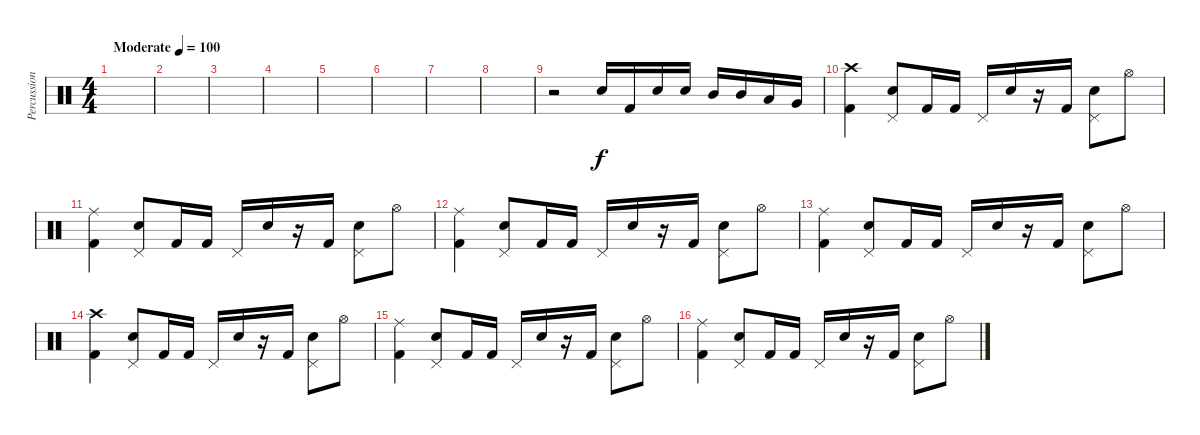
\track ("Percussion" "Percussion") {instrument percussion}
\staff {score}
\articulation defaults
\ts (4 4)
\tempo (100 "Moderate")
\clef neutral
\ks c
|
|
|
|
|
|
|
|
r.2 "Electric Snare (hit)".16 "Kick (hit) 2".16 "Electric Snare (hit)".16 "Electric Snare (hit)".16 "Mid Tom (hit)".16 "Mid Tom (hit)".16 "Low Tom (hit)".16 "Very Low Tom (hit)".16 |
("Crash high (hit)" "Kick (hit) 2").4 ("Pedal Hi-Hat (hit)" "Electric Snare (hit)").8 "Kick (hit) 2".16 "Kick (hit) 2".16 "Pedal Hi-Hat (hit)".16 "Electric Snare (hit)".16 r.16 "Kick (hit) 2".16 ("Pedal Hi-Hat (hit)" "Electric Snare (hit)").8 "Hi-Hat (open)".8 |
("Ride (middle)" "Kick (hit) 2").4 ("Pedal Hi-Hat (hit)" "Electric Snare (hit)").8 "Kick (hit) 2".16 "Kick (hit) 2".16 "Pedal Hi-Hat (hit)".16 "Electric Snare (hit)".16 r.16 "Kick (hit) 2".16 ("Pedal Hi-Hat (hit)" "Electric Snare (hit)").8 "Hi-Hat (open)".8 |
("Ride (middle)" "Kick (hit) 2").4 ("Pedal Hi-Hat (hit)" "Electric Snare (hit)").8 "Kick (hit) 2".16 "Kick (hit) 2".16 "Pedal Hi-Hat (hit)".16 "Electric Snare (hit)".16 r.16 "Kick (hit) 2".16 ("Pedal Hi-Hat (hit)" "Electric Snare (hit)").8 "Hi-Hat (open)".8 |
("Ride (middle)" "Kick (hit) 2").4 ("Pedal Hi-Hat (hit)" "Electric Snare (hit)").8 "Kick (hit) 2".16 "Kick (hit) 2".16 "Pedal Hi-Hat (hit)".16 "Electric Snare (hit)".16 r.16 "Kick (hit) 2".16 ("Pedal Hi-Hat (hit)" "Electric Snare (hit)").8 "Hi-Hat (open)".8 |
("Crash high (hit)" "Kick (hit) 2").4 ("Pedal Hi-Hat (hit)" "Electric Snare (hit)").8 "Kick (hit) 2".16 "Kick (hit) 2".16 "Pedal Hi-Hat (hit)".16 "Electric Snare (hit)".16 r.16 "Kick (hit) 2".16 ("Pedal Hi-Hat (hit)" "Electric Snare (hit)").8 "Hi-Hat (open)".8 |
("Ride (middle)" "Kick (hit) 2").4 ("Pedal Hi-Hat (hit)" "Electric Snare (hit)").8 "Kick (hit) 2".16 "Kick (hit) 2".16 "Pedal Hi-Hat (hit)".16 "Electric Snare (hit)".16 r.16 "Kick (hit) 2".16 ("Pedal Hi-Hat (hit)" "Electric Snare (hit)").8 "Hi-Hat (open)".8 |
("Ride (middle)" "Kick (hit) 2").4 ("Pedal Hi-Hat (hit)" "Electric Snare (hit)").8 "Kick (hit) 2".16 "Kick (hit) 2".16 "Pedal Hi-Hat (hit)".16 "Electric Snare (hit)".16 r.16 "Kick (hit) 2".16 ("Pedal Hi-Hat (hit)" "Electric Snare (hit)").8 "Hi-Hat (open)".8
